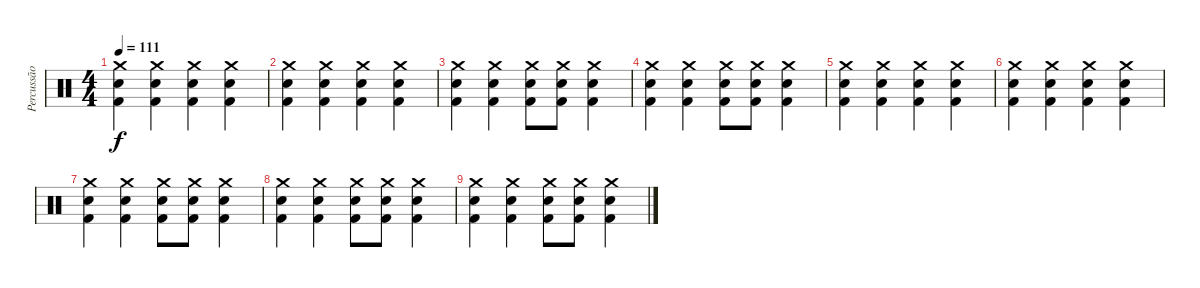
\track ("Percussão" "Percussão") {instrument percussion}
\staff {score}
\articulation defaults
\ts (4 4)
\tempo 111
\clef neutral
\ks c
("Kick (hit) 2" "Electric Snare (hit)" "Crash medium (hit)").4{dy f} ("Kick (hit) 2" "Electric Snare (hit)" "Crash medium (hit)").4 ("Kick (hit) 2" "Electric Snare (hit)" "Crash medium (hit)").4 ("Kick (hit) 2" "Electric Snare (hit)" "Crash medium (hit)").4 |
("Kick (hit) 2" "Electric Snare (hit)" "Crash medium (hit)").4 ("Kick (hit) 2" "Electric Snare (hit)" "Crash medium (hit)").4 ("Kick (hit) 2" "Electric Snare (hit)" "Crash medium (hit)").4 ("Kick (hit) 2" "Electric Snare (hit)" "Crash medium (hit)").4 |
("Kick (hit) 2" "Electric Snare (hit)" "Crash medium (hit)").4 ("Kick (hit) 2" "Electric Snare (hit)" "Crash medium (hit)").4 ("Kick (hit) 2" "Electric Snare (hit)" "Crash medium (hit)").8 ("Kick (hit) 2" "Electric Snare (hit)" "Crash medium (hit)").8 ("Kick (hit) 2" "Electric Snare (hit)" "Crash medium (hit)").4 |
("Kick (hit) 2" "Electric Snare (hit)" "Crash medium (hit)").4 ("Kick (hit) 2" "Electric Snare (hit)" "Crash medium (hit)").4 ("Kick (hit) 2" "Electric Snare (hit)" "Crash medium (hit)").8 ("Kick (hit) 2" "Electric Snare (hit)" "Crash medium (hit)").8 ("Kick (hit) 2" "Electric Snare (hit)" "Crash medium (hit)").4 |
("Kick (hit) 2" "Electric Snare (hit)" "Crash medium (hit)").4 ("Kick (hit) 2" "Electric Snare (hit)" "Crash medium (hit)").4 ("Kick (hit) 2" "Electric Snare (hit)" "Crash medium (hit)").4 ("Kick (hit) 2" "Electric Snare (hit)" "Crash medium (hit)").4 |
("Kick (hit) 2" "Electric Snare (hit)" "Crash medium (hit)").4 ("Kick (hit) 2" "Electric Snare (hit)" "Crash medium (hit)").4 ("Kick (hit) 2" "Electric Snare (hit)" "Crash medium (hit)").4 ("Kick (hit) 2" "Electric Snare (hit)" "Crash medium (hit)").4 |
("Kick (hit) 2" "Electric Snare (hit)" "Crash medium (hit)").4 ("Kick (hit) 2" "Electric Snare (hit)" "Crash medium (hit)").4 ("Kick (hit) 2" "Electric Snare (hit)" "Crash medium (hit)").8 ("Kick (hit) 2" "Electric Snare (hit)" "Crash medium (hit)").8 ("Kick (hit) 2" "Electric Snare (hit)" "Crash medium (hit)").4 |
("Kick (hit) 2" "Electric Snare (hit)" "Crash medium (hit)").4 ("Kick (hit) 2" "Electric Snare (hit)" "Crash medium (hit)").4 ("Kick (hit) 2" "Electric Snare (hit)" "Crash medium (hit)").8 ("Kick (hit) 2" "Electric Snare (hit)" "Crash medium (hit)").8 ("Kick (hit) 2" "Electric Snare (hit)" "Crash medium (hit)").4 |
("Kick (hit) 2" "Electric Snare (hit)" "Crash medium (hit)").4 ("Kick (hit) 2" "Electric Snare (hit)" "Crash medium (hit)").4 ("Kick (hit) 2" "Electric Snare (hit)" "Crash medium (hit)").8 ("Kick (hit) 2" "Electric Snare (hit)" "Crash medium (hit)").8 ("Kick (hit) 2" "Electric Snare (hit)" "Crash medium (hit)").4
